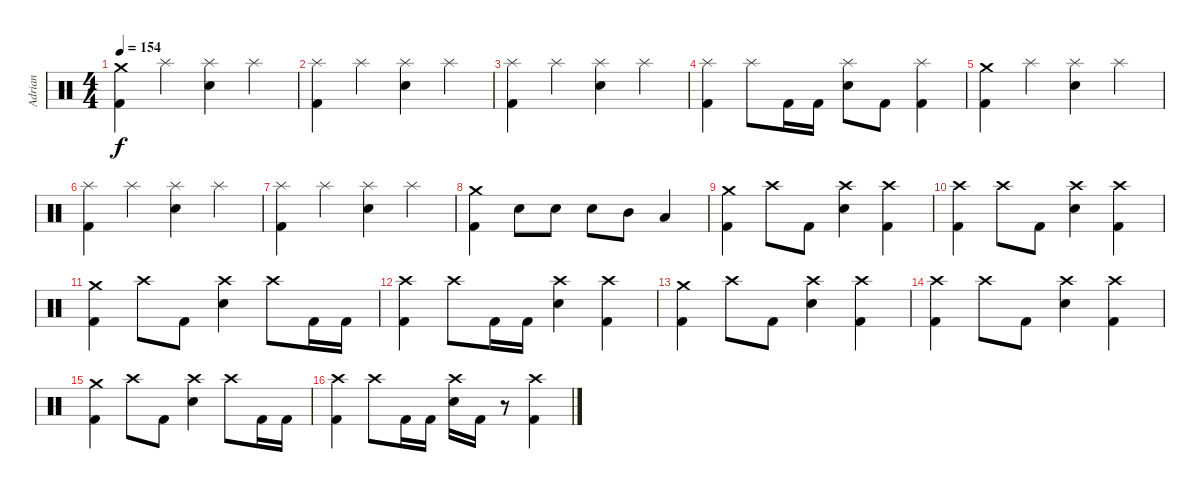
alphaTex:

\track ("Adrian" "Adrian") {instrument percussion}
\staff {score}
\articulation defaults
\ts (4 4)
\tempo 154
\clef neutral
\ks c
("Crash medium (hit)" "Kick (hit) 2").4{dy f} "Splash (hit)".4 ("Splash (hit)" "Electric Snare (hit)").4 "Splash (hit)".4 |
("Splash (hit)" "Kick (hit) 2").4 "Splash (hit)".4 ("Splash (hit)" "Electric Snare (hit)").4 "Splash (hit)".4 |
("Splash (hit)" "Kick (hit) 2").4 "Splash (hit)".4 ("Splash (hit)" "Electric Snare (hit)").4 "Splash (hit)".4 |
("Splash (hit)" "Kick (hit) 2").4 "Splash (hit)".8 "Kick (hit) 2".16 "Kick (hit) 2".16 ("Splash (hit)" "Electric Snare (hit)").8 "Kick (hit) 2".8 ("Splash (hit)" "Kick (hit) 2").4 |
("Crash medium (hit)" "Kick (hit) 2").4 "Splash (hit)".4 ("Splash (hit)" "Electric Snare (hit)").4 "Splash (hit)".4 |
("Splash (hit)" "Kick (hit) 2").4 "Splash (hit)".4 ("Splash (hit)" "Electric Snare (hit)").4 "Splash (hit)".4 |
("Splash (hit)" "Kick (hit) 2").4 "Splash (hit)".4 ("Splash (hit)" "Electric Snare (hit)").4 "Splash (hit)".4 |
("Crash medium (hit)" "Kick (hit) 2").4 "Electric Snare (hit)".8 "Electric Snare (hit)".8 "Electric Snare (hit)".8 "Mid Tom (hit)".8 "Low Tom (hit)".4 |
("Crash medium (hit)" "Kick (hit) 2").4 "Crash high (hit)".8 "Kick (hit) 2".8 ("Crash high (hit)" "Electric Snare (hit)").4 ("Crash high (hit)" "Kick (hit) 2").4 |
("Crash high (hit)" "Kick (hit) 2").4 "Crash high (hit)".8 "Kick (hit) 2".8 ("Crash high (hit)" "Electric Snare (hit)").4 ("Crash high (hit)" "Kick (hit) 2").4 |
("Crash medium (hit)" "Kick (hit) 2").4 "Crash high (hit)".8 "Kick (hit) 2".8 ("Crash high (hit)" "Electric Snare (hit)").4 "Crash high (hit)".8 "Kick (hit) 2".16 "Kick (hit) 2".16 |
("Crash high (hit)" "Kick (hit) 2").4 "Crash high (hit)".8 "Kick (hit) 2".16 "Kick (hit) 2".16 ("Crash high (hit)" "Electric Snare (hit)").4 ("Crash high (hit)" "Kick (hit) 2").4 |
("Crash medium (hit)" "Kick (hit) 2").4 "Crash high (hit)".8 "Kick (hit) 2".8 ("Crash high (hit)" "Electric Snare (hit)").4 ("Crash high (hit)" "Kick (hit) 2").4 |
("Crash high (hit)" "Kick (hit) 2").4 "Crash high (hit)".8 "Kick (hit) 2".8 ("Crash high (hit)" "Electric Snare (hit)").4 ("Crash high (hit)" "Kick (hit) 2").4 |
("Crash medium (hit)" "Kick (hit) 2").4 "Crash high (hit)".8 "Kick (hit) 2".8 ("Crash high (hit)" "Electric Snare (hit)").4 "Crash high (hit)".8 "Kick (hit) 2".16 "Kick (hit) 2".16 |
("Crash high (hit)" "Kick (hit) 2").4 "Crash high (hit)".8 "Kick (hit) 2".16 "Kick (hit) 2".16 ("Crash high (hit)" "Electric Snare (hit)").16 "Kick (hit) 2".16 r.8 ("Crash high (hit)" "Kick (hit) 2").4
